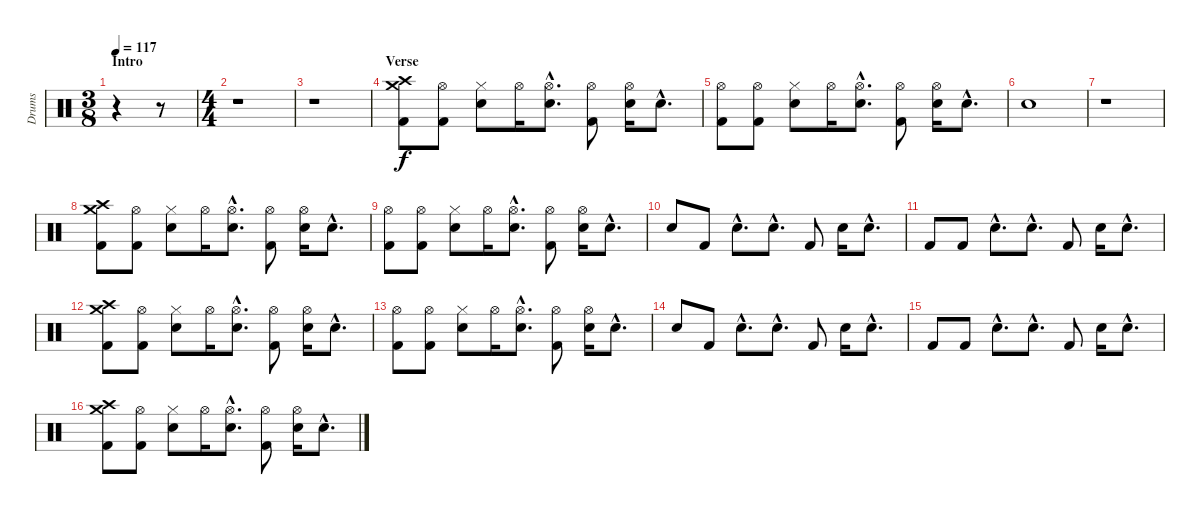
\track ("Drums" "Drums") {instrument percussion}
\staff {score}
\articulation defaults
\ts (3 8)
\section ("" "Intro")
\tempo 117
\clef neutral
\ks c
r.4{dy f} r.8 |
\ts (4 4)
r.1 |
r.1 |
\section ("" "Verse")
("Crash medium (hit)" "Crash high (hit)" "Kick (hit) 2").8 ("Hi-Hat (open)" "Kick (hit) 2").8 ("Hi-Hat (closed)" "Electric Snare (hit)").8 "Hi-Hat (open)".16 ("Hi-Hat (open)"{hac} "Electric Snare (hit)"{hac}).8{d} ("Hi-Hat (open)" "Kick (hit) 2").8 ("Hi-Hat (open)" "Electric Snare (hit)").16 "Electric Snare (hit)"{hac}.8{d} |
("Hi-Hat (open)" "Kick (hit) 2").8 ("Hi-Hat (open)" "Kick (hit) 2").8 ("Hi-Hat (closed)" "Electric Snare (hit)").8 "Hi-Hat (open)".16 ("Hi-Hat (open)"{hac} "Electric Snare (hit)"{hac}).8{d} ("Hi-Hat (open)" "Kick (hit) 2").8 ("Hi-Hat (open)" "Electric Snare (hit)").16 "Electric Snare (hit)"{hac}.8{d} |
"Electric Snare (hit)".1 |
r.1 |
("Crash medium (hit)" "Crash high (hit)" "Kick (hit) 2").8 ("Hi-Hat (open)" "Kick (hit) 2").8 ("Hi-Hat (closed)" "Electric Snare (hit)").8 "Hi-Hat (open)".16 ("Hi-Hat (open)"{hac} "Electric Snare (hit)"{hac}).8{d} ("Hi-Hat (open)" "Kick (hit) 2").8 ("Hi-Hat (open)" "Electric Snare (hit)").16 "Electric Snare (hit)"{hac}.8{d} |
("Hi-Hat (open)" "Kick (hit) 2").8 ("Hi-Hat (open)" "Kick (hit) 2").8 ("Hi-Hat (closed)" "Electric Snare (hit)").8 "Hi-Hat (open)".16 ("Hi-Hat (open)"{hac} "Electric Snare (hit)"{hac}).8{d} ("Hi-Hat (open)" "Kick (hit) 2").8 ("Hi-Hat (open)" "Electric Snare (hit)").16 "Electric Snare (hit)"{hac}.8{d} |
"Electric Snare (hit)".8 "Kick (hit) 2".8{volume 10} "Electric Snare (hit)"{hac}.8{d} "Electric Snare (hit)"{hac}.8{d} "Kick (hit) 2".8 "Electric Snare (hit)".16 "Electric Snare (hit)"{hac}.8{d} |
"Kick (hit) 2".8 "Kick (hit) 2".8 "Electric Snare (hit)"{hac}.8{d} "Electric Snare (hit)"{hac}.8{d} "Kick (hit) 2".8 "Electric Snare (hit)".16 "Electric Snare (hit)"{hac}.8{d} |
("Crash medium (hit)" "Crash high (hit)" "Kick (hit) 2").8{volume 14} ("Hi-Hat (open)" "Kick (hit) 2").8 ("Hi-Hat (closed)" "Electric Snare (hit)").8 "Hi-Hat (open)".16 ("Hi-Hat (open)"{hac} "Electric Snare (hit)"{hac}).8{d} ("Hi-Hat (open)" "Kick (hit) 2").8 ("Hi-Hat (open)" "Electric Snare (hit)").16 "Electric Snare (hit)"{hac}.8{d} |
("Hi-Hat (open)" "Kick (hit) 2").8 ("Hi-Hat (open)" "Kick (hit) 2").8 ("Hi-Hat (closed)" "Electric Snare (hit)").8 "Hi-Hat (open)".16 ("Hi-Hat (open)"{hac} "Electric Snare (hit)"{hac}).8{d} ("Hi-Hat (open)" "Kick (hit) 2").8 ("Hi-Hat (open)" "Electric Snare (hit)").16 "Electric Snare (hit)"{hac}.8{d} |
"Electric Snare (hit)".8 "Kick (hit) 2".8{volume 10} "Electric Snare (hit)"{hac}.8{d} "Electric Snare (hit)"{hac}.8{d} "Kick (hit) 2".8 "Electric Snare (hit)".16 "Electric Snare (hit)"{hac}.8{d} |
"Kick (hit) 2".8 "Kick (hit) 2".8 "Electric Snare (hit)"{hac}.8{d} "Electric Snare (hit)"{hac}.8{d} "Kick (hit) 2".8 "Electric Snare (hit)".16 "Electric Snare (hit)"{hac}.8{d} |
("Crash medium (hit)" "Crash high (hit)" "Kick (hit) 2").8{volume 14} ("Hi-Hat (open)" "Kick (hit) 2").8 ("Hi-Hat (closed)" "Electric Snare (hit)").8 "Hi-Hat (open)".16 ("Hi-Hat (open)"{hac} "Electric Snare (hit)"{hac}).8{d} ("Hi-Hat (open)" "Kick (hit) 2").8 ("Hi-Hat (open)" "Electric Snare (hit)").16 "Electric Snare (hit)"{hac}.8{d}
